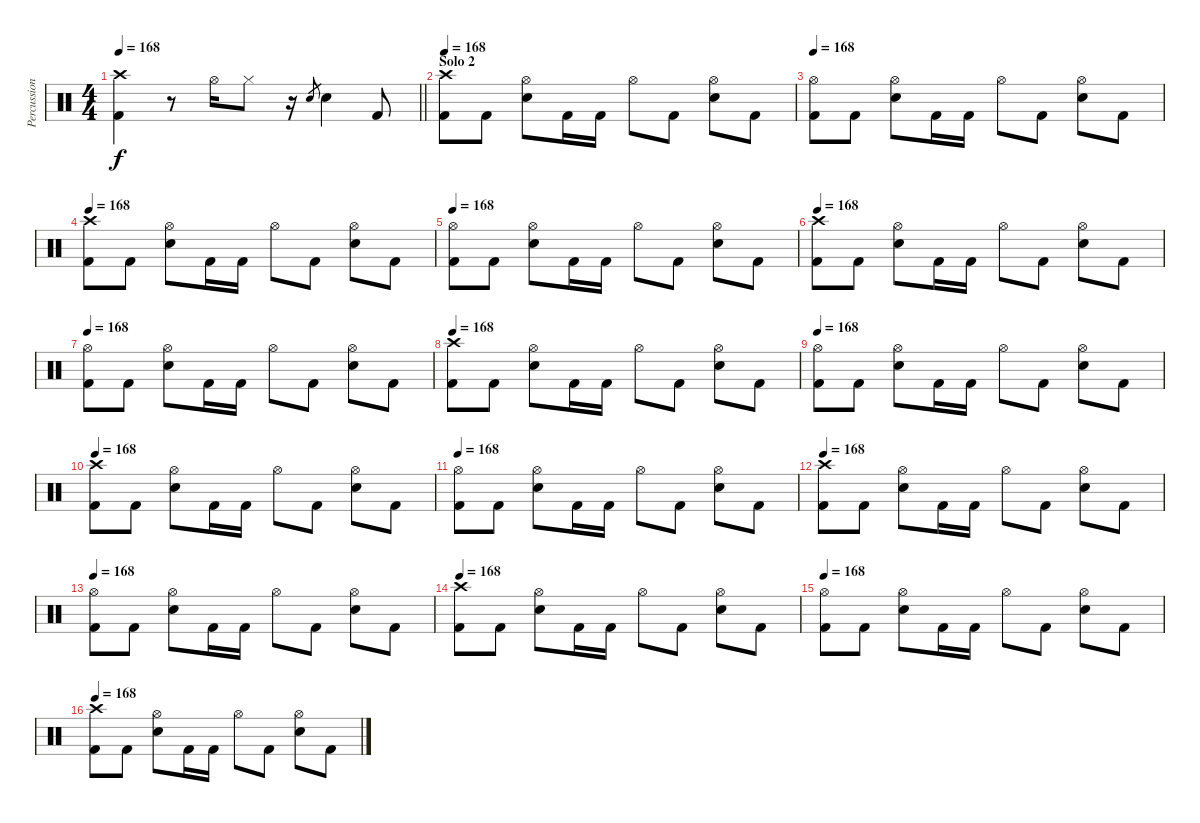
\track ("Percussion" "Percussion") {instrument percussion}
\staff {score}
\articulation defaults
\ts (4 4)
\tempo 168
\clef neutral
\barLineRight lightlight
\ks c
("Crash high (hit)" "Kick (hit) 2").4{dy f} r.8 "Hi-Hat (open)".16 "Hi-Hat (closed)".8 r.16 "Snare (hit) 2".8{gr} "Snare (hit) 2".4 "Kick (hit) 2".8 |
\section ("" "Solo 2")
\tempo 168
("Crash high (hit)" "Kick (hit) 2").8 "Kick (hit) 2".8 ("Hi-Hat (open)" "Snare (hit) 2").8 "Kick (hit) 2".16 "Kick (hit) 2".16 "Hi-Hat (open)".8 "Kick (hit) 2".8 ("Hi-Hat (open)" "Snare (hit) 2").8 "Kick (hit) 2".8 |
\tempo 168
("Hi-Hat (open)" "Kick (hit) 2").8 "Kick (hit) 2".8 ("Hi-Hat (open)" "Snare (hit) 2").8 "Kick (hit) 2".16 "Kick (hit) 2".16 "Hi-Hat (open)".8 "Kick (hit) 2".8 ("Hi-Hat (open)" "Snare (hit) 2").8 "Kick (hit) 2".8 |
\tempo 168
("Crash high (hit)" "Kick (hit) 2").8 "Kick (hit) 2".8 ("Hi-Hat (open)" "Snare (hit) 2").8 "Kick (hit) 2".16 "Kick (hit) 2".16 "Hi-Hat (open)".8 "Kick (hit) 2".8 ("Hi-Hat (open)" "Snare (hit) 2").8 "Kick (hit) 2".8 |
\tempo 168
("Hi-Hat (open)" "Kick (hit) 2").8 "Kick (hit) 2".8 ("Hi-Hat (open)" "Snare (hit) 2").8 "Kick (hit) 2".16 "Kick (hit) 2".16 "Hi-Hat (open)".8 "Kick (hit) 2".8 ("Hi-Hat (open)" "Snare (hit) 2").8 "Kick (hit) 2".8 |
\tempo 168
("Crash high (hit)" "Kick (hit) 2").8 "Kick (hit) 2".8 ("Hi-Hat (open)" "Snare (hit) 2").8 "Kick (hit) 2".16 "Kick (hit) 2".16 "Hi-Hat (open)".8 "Kick (hit) 2".8 ("Hi-Hat (open)" "Snare (hit) 2").8 "Kick (hit) 2".8 |
\tempo 168
("Hi-Hat (open)" "Kick (hit) 2").8 "Kick (hit) 2".8 ("Hi-Hat (open)" "Snare (hit) 2").8 "Kick (hit) 2".16 "Kick (hit) 2".16 "Hi-Hat (open)".8 "Kick (hit) 2".8 ("Hi-Hat (open)" "Snare (hit) 2").8 "Kick (hit) 2".8 |
\tempo 168
("Crash high (hit)" "Kick (hit) 2").8 "Kick (hit) 2".8 ("Hi-Hat (open)" "Snare (hit) 2").8 "Kick (hit) 2".16 "Kick (hit) 2".16 "Hi-Hat (open)".8 "Kick (hit) 2".8 ("Hi-Hat (open)" "Snare (hit) 2").8 "Kick (hit) 2".8 |
\tempo 168
("Hi-Hat (open)" "Kick (hit) 2").8 "Kick (hit) 2".8 ("Hi-Hat (open)" "Snare (hit) 2").8 "Kick (hit) 2".16 "Kick (hit) 2".16 "Hi-Hat (open)".8 "Kick (hit) 2".8 ("Hi-Hat (open)" "Snare (hit) 2").8 "Kick (hit) 2".8 |
\tempo 168
("Crash high (hit)" "Kick (hit) 2").8 "Kick (hit) 2".8 ("Hi-Hat (open)" "Snare (hit) 2").8 "Kick (hit) 2".16 "Kick (hit) 2".16 "Hi-Hat (open)".8 "Kick (hit) 2".8 ("Hi-Hat (open)" "Snare (hit) 2").8 "Kick (hit) 2".8 |
\tempo 168
("Hi-Hat (open)" "Kick (hit) 2").8 "Kick (hit) 2".8 ("Hi-Hat (open)" "Snare (hit) 2").8 "Kick (hit) 2".16 "Kick (hit) 2".16 "Hi-Hat (open)".8 "Kick (hit) 2".8 ("Hi-Hat (open)" "Snare (hit) 2").8 "Kick (hit) 2".8 |
\tempo 168
("Crash high (hit)" "Kick (hit) 2").8 "Kick (hit) 2".8 ("Hi-Hat (open)" "Snare (hit) 2").8 "Kick (hit) 2".16 "Kick (hit) 2".16 "Hi-Hat (open)".8 "Kick (hit) 2".8 ("Hi-Hat (open)" "Snare (hit) 2").8 "Kick (hit) 2".8 |
\tempo 168
("Hi-Hat (open)" "Kick (hit) 2").8 "Kick (hit) 2".8 ("Hi-Hat (open)" "Snare (hit) 2").8 "Kick (hit) 2".16 "Kick (hit) 2".16 "Hi-Hat (open)".8 "Kick (hit) 2".8 ("Hi-Hat (open)" "Snare (hit) 2").8 "Kick (hit) 2".8 |
\tempo 168
("Crash high (hit)" "Kick (hit) 2").8 "Kick (hit) 2".8 ("Hi-Hat (open)" "Snare (hit) 2").8 "Kick (hit) 2".16 "Kick (hit) 2".16 "Hi-Hat (open)".8 "Kick (hit) 2".8 ("Hi-Hat (open)" "Snare (hit) 2").8 "Kick (hit) 2".8 |
\tempo 168
("Hi-Hat (open)" "Kick (hit) 2").8 "Kick (hit) 2".8 ("Hi-Hat (open)" "Snare (hit) 2").8 "Kick (hit) 2".16 "Kick (hit) 2".16 "Hi-Hat (open)".8 "Kick (hit) 2".8 ("Hi-Hat (open)" "Snare (hit) 2").8 "Kick (hit) 2".8 |
\tempo 168
("Crash high (hit)" "Kick (hit) 2").8 "Kick (hit) 2".8 ("Hi-Hat (open)" "Snare (hit) 2").8 "Kick (hit) 2".16 "Kick (hit) 2".16 "Hi-Hat (open)".8 "Kick (hit) 2".8 ("Hi-Hat (open)" "Snare (hit) 2").8 "Kick (hit) 2".8
